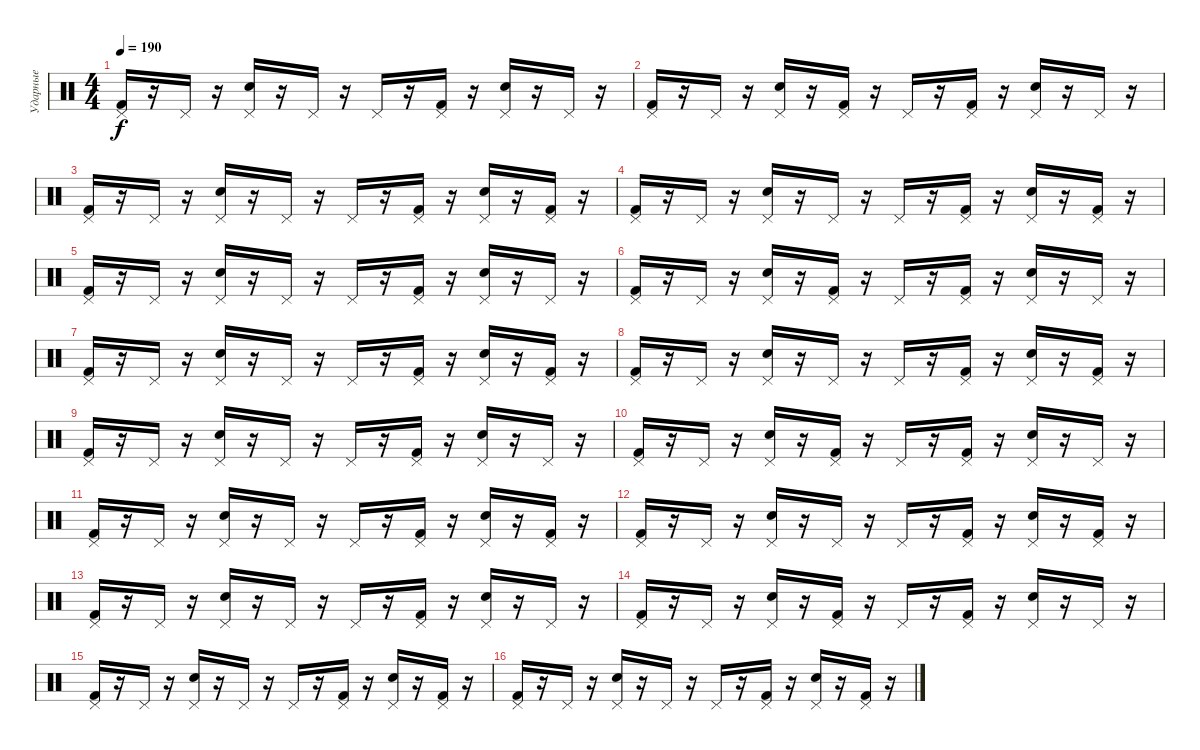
\track ("Ударные" "Ударные") {instrument percussion}
\staff {score}
\articulation defaults
\ts (4 4)
\tempo 190
\clef neutral
\ks c
("Pedal Hi-Hat (hit)" "Kick (hit) 2").16{dy f} r.16 "Pedal Hi-Hat (hit)".16 r.16 ("Pedal Hi-Hat (hit)" "Electric Snare (hit)").16 r.16 "Pedal Hi-Hat (hit)".16 r.16 "Pedal Hi-Hat (hit)".16 r.16 ("Pedal Hi-Hat (hit)" "Kick (hit) 2").16 r.16 ("Pedal Hi-Hat (hit)" "Electric Snare (hit)").16 r.16 "Pedal Hi-Hat (hit)".16 r.16 |
("Pedal Hi-Hat (hit)" "Kick (hit) 2").16 r.16 "Pedal Hi-Hat (hit)".16 r.16 ("Pedal Hi-Hat (hit)" "Electric Snare (hit)").16 r.16 ("Pedal Hi-Hat (hit)" "Kick (hit) 2").16 r.16 "Pedal Hi-Hat (hit)".16 r.16 ("Pedal Hi-Hat (hit)" "Kick (hit) 2").16 r.16 ("Pedal Hi-Hat (hit)" "Electric Snare (hit)").16 r.16 "Pedal Hi-Hat (hit)".16 r.16 |
("Pedal Hi-Hat (hit)" "Kick (hit) 2").16 r.16 "Pedal Hi-Hat (hit)".16 r.16 ("Pedal Hi-Hat (hit)" "Electric Snare (hit)").16 r.16 "Pedal Hi-Hat (hit)".16 r.16 "Pedal Hi-Hat (hit)".16 r.16 ("Pedal Hi-Hat (hit)" "Kick (hit) 2").16 r.16 ("Pedal Hi-Hat (hit)" "Electric Snare (hit)").16 r.16 ("Pedal Hi-Hat (hit)" "Kick (hit) 2").16 r.16 |
("Pedal Hi-Hat (hit)" "Kick (hit) 2").16 r.16 "Pedal Hi-Hat (hit)".16 r.16 ("Pedal Hi-Hat (hit)" "Electric Snare (hit)").16 r.16 "Pedal Hi-Hat (hit)".16 r.16 "Pedal Hi-Hat (hit)".16 r.16 ("Pedal Hi-Hat (hit)" "Kick (hit) 2").16 r.16 ("Pedal Hi-Hat (hit)" "Electric Snare (hit)").16 r.16 ("Pedal Hi-Hat (hit)" "Kick (hit) 2").16 r.16 |
("Pedal Hi-Hat (hit)" "Kick (hit) 2").16 r.16 "Pedal Hi-Hat (hit)".16 r.16 ("Pedal Hi-Hat (hit)" "Electric Snare (hit)").16 r.16 "Pedal Hi-Hat (hit)".16 r.16 "Pedal Hi-Hat (hit)".16 r.16 ("Pedal Hi-Hat (hit)" "Kick (hit) 2").16 r.16 ("Pedal Hi-Hat (hit)" "Electric Snare (hit)").16 r.16 "Pedal Hi-Hat (hit)".16 r.16 |
("Pedal Hi-Hat (hit)" "Kick (hit) 2").16 r.16 "Pedal Hi-Hat (hit)".16 r.16 ("Pedal Hi-Hat (hit)" "Electric Snare (hit)").16 r.16 ("Pedal Hi-Hat (hit)" "Kick (hit) 2").16 r.16 "Pedal Hi-Hat (hit)".16 r.16 ("Pedal Hi-Hat (hit)" "Kick (hit) 2").16 r.16 ("Pedal Hi-Hat (hit)" "Electric Snare (hit)").16 r.16 "Pedal Hi-Hat (hit)".16 r.16 |
("Pedal Hi-Hat (hit)" "Kick (hit) 2").16 r.16 "Pedal Hi-Hat (hit)".16 r.16 ("Pedal Hi-Hat (hit)" "Electric Snare (hit)").16 r.16 "Pedal Hi-Hat (hit)".16 r.16 "Pedal Hi-Hat (hit)".16 r.16 ("Pedal Hi-Hat (hit)" "Kick (hit) 2").16 r.16 ("Pedal Hi-Hat (hit)" "Electric Snare (hit)").16 r.16 ("Pedal Hi-Hat (hit)" "Kick (hit) 2").16 r.16 |
("Pedal Hi-Hat (hit)" "Kick (hit) 2").16 r.16 "Pedal Hi-Hat (hit)".16 r.16 ("Pedal Hi-Hat (hit)" "Electric Snare (hit)").16 r.16 "Pedal Hi-Hat (hit)".16 r.16 "Pedal Hi-Hat (hit)".16 r.16 ("Pedal Hi-Hat (hit)" "Kick (hit) 2").16 r.16 ("Pedal Hi-Hat (hit)" "Electric Snare (hit)").16 r.16 ("Pedal Hi-Hat (hit)" "Kick (hit) 2").16 r.16 |
("Pedal Hi-Hat (hit)" "Kick (hit) 2").16 r.16 "Pedal Hi-Hat (hit)".16 r.16 ("Pedal Hi-Hat (hit)" "Electric Snare (hit)").16 r.16 "Pedal Hi-Hat (hit)".16 r.16 "Pedal Hi-Hat (hit)".16 r.16 ("Pedal Hi-Hat (hit)" "Kick (hit) 2").16 r.16 ("Pedal Hi-Hat (hit)" "Electric Snare (hit)").16 r.16 "Pedal Hi-Hat (hit)".16 r.16 |
("Pedal Hi-Hat (hit)" "Kick (hit) 2").16 r.16 "Pedal Hi-Hat (hit)".16 r.16 ("Pedal Hi-Hat (hit)" "Electric Snare (hit)").16 r.16 ("Pedal Hi-Hat (hit)" "Kick (hit) 2").16 r.16 "Pedal Hi-Hat (hit)".16 r.16 ("Pedal Hi-Hat (hit)" "Kick (hit) 2").16 r.16 ("Pedal Hi-Hat (hit)" "Electric Snare (hit)").16 r.16 "Pedal Hi-Hat (hit)".16 r.16 |
("Pedal Hi-Hat (hit)" "Kick (hit) 2").16 r.16 "Pedal Hi-Hat (hit)".16 r.16 ("Pedal Hi-Hat (hit)" "Electric Snare (hit)").16 r.16 "Pedal Hi-Hat (hit)".16 r.16 "Pedal Hi-Hat (hit)".16 r.16 ("Pedal Hi-Hat (hit)" "Kick (hit) 2").16 r.16 ("Pedal Hi-Hat (hit)" "Electric Snare (hit)").16 r.16 ("Pedal Hi-Hat (hit)" "Kick (hit) 2").16 r.16 |
("Pedal Hi-Hat (hit)" "Kick (hit) 2").16 r.16 "Pedal Hi-Hat (hit)".16 r.16 ("Pedal Hi-Hat (hit)" "Electric Snare (hit)").16 r.16 "Pedal Hi-Hat (hit)".16 r.16 "Pedal Hi-Hat (hit)".16 r.16 ("Pedal Hi-Hat (hit)" "Kick (hit) 2").16 r.16 ("Pedal Hi-Hat (hit)" "Electric Snare (hit)").16 r.16 ("Pedal Hi-Hat (hit)" "Kick (hit) 2").16 r.16 |
("Pedal Hi-Hat (hit)" "Kick (hit) 2").16 r.16 "Pedal Hi-Hat (hit)".16 r.16 ("Pedal Hi-Hat (hit)" "Electric Snare (hit)").16 r.16 "Pedal Hi-Hat (hit)".16 r.16 "Pedal Hi-Hat (hit)".16 r.16 ("Pedal Hi-Hat (hit)" "Kick (hit) 2").16 r.16 ("Pedal Hi-Hat (hit)" "Electric Snare (hit)").16 r.16 "Pedal Hi-Hat (hit)".16 r.16 |
("Pedal Hi-Hat (hit)" "Kick (hit) 2").16 r.16 "Pedal Hi-Hat (hit)".16 r.16 ("Pedal Hi-Hat (hit)" "Electric Snare (hit)").16 r.16 ("Pedal Hi-Hat (hit)" "Kick (hit) 2").16 r.16 "Pedal Hi-Hat (hit)".16 r.16 ("Pedal Hi-Hat (hit)" "Kick (hit) 2").16 r.16 ("Pedal Hi-Hat (hit)" "Electric Snare (hit)").16 r.16 "Pedal Hi-Hat (hit)".16 r.16 |
("Pedal Hi-Hat (hit)" "Kick (hit) 2").16 r.16 "Pedal Hi-Hat (hit)".16 r.16 ("Pedal Hi-Hat (hit)" "Electric Snare (hit)").16 r.16 "Pedal Hi-Hat (hit)".16 r.16 "Pedal Hi-Hat (hit)".16 r.16 ("Pedal Hi-Hat (hit)" "Kick (hit) 2").16 r.16 ("Pedal Hi-Hat (hit)" "Electric Snare (hit)").16 r.16 ("Pedal Hi-Hat (hit)" "Kick (hit) 2").16 r.16 |
("Pedal Hi-Hat (hit)" "Kick (hit) 2").16 r.16 "Pedal Hi-Hat (hit)".16 r.16 ("Pedal Hi-Hat (hit)" "Electric Snare (hit)").16 r.16 "Pedal Hi-Hat (hit)".16 r.16 "Pedal Hi-Hat (hit)".16 r.16 ("Pedal Hi-Hat (hit)" "Kick (hit) 2").16 r.16 ("Pedal Hi-Hat (hit)" "Electric Snare (hit)").16 r.16 ("Pedal Hi-Hat (hit)" "Kick (hit) 2").16 r.16
